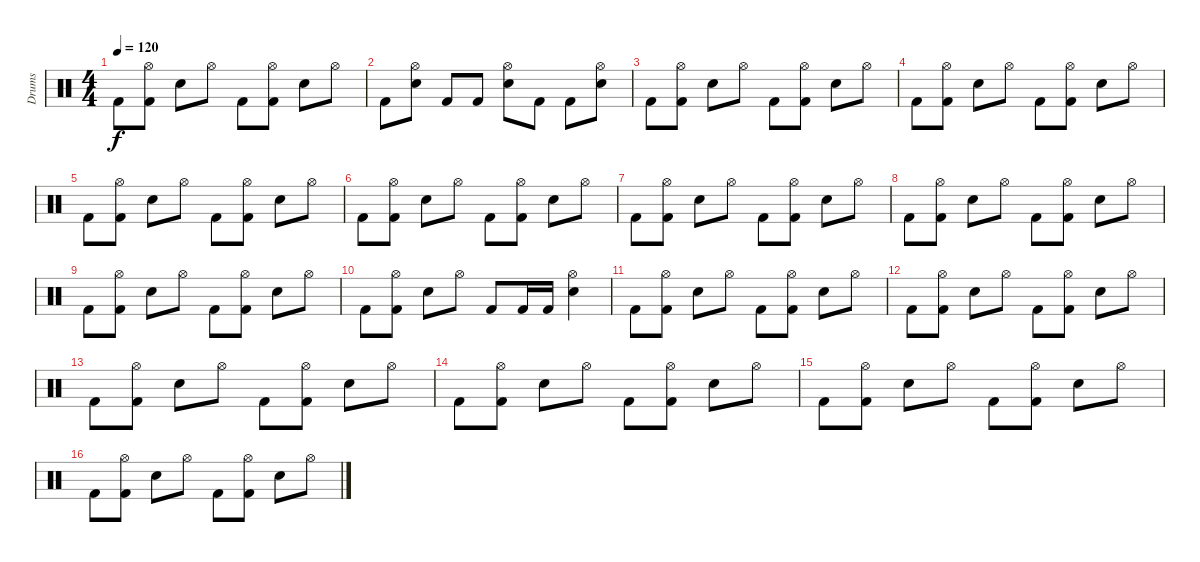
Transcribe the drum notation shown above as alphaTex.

\track ("Drums" "Drums") {instrument percussion}
\staff {score}
\articulation defaults
\ts (4 4)
\tempo 120
\clef neutral
\ks c "Kick (hit) 2".8{dy f}
("Hi-Hat (open)" "Kick (hit) 2").8 "Electric Snare (hit)".8 "Hi-Hat (open)".8 "Kick (hit) 2".8 ("Hi-Hat (open)" "Kick (hit) 2").8 "Electric Snare (hit)".8 "Hi-Hat (open)".8 |
"Kick (hit) 2".8 ("Electric Snare (hit)" "Hi-Hat (open)").8 "Kick (hit) 2".8 "Kick (hit) 2".8 ("Hi-Hat (open)" "Electric Snare (hit)").8 "Kick (hit) 2".8 "Kick (hit) 2".8 ("Electric Snare (hit)" "Hi-Hat (open)").8 |
"Kick (hit) 2".8 ("Hi-Hat (open)" "Kick (hit) 2").8 "Electric Snare (hit)".8 "Hi-Hat (open)".8 "Kick (hit) 2".8 ("Hi-Hat (open)" "Kick (hit) 2").8 "Electric Snare (hit)".8 "Hi-Hat (open)".8 |
"Kick (hit) 2".8 ("Hi-Hat (open)" "Kick (hit) 2").8 "Electric Snare (hit)".8 "Hi-Hat (open)".8 "Kick (hit) 2".8 ("Hi-Hat (open)" "Kick (hit) 2").8 "Electric Snare (hit)".8 "Hi-Hat (open)".8 |
"Kick (hit) 2".8 ("Hi-Hat (open)" "Kick (hit) 2").8 "Electric Snare (hit)".8 "Hi-Hat (open)".8 "Kick (hit) 2".8 ("Hi-Hat (open)" "Kick (hit) 2").8 "Electric Snare (hit)".8 "Hi-Hat (open)".8 |
"Kick (hit) 2".8 ("Hi-Hat (open)" "Kick (hit) 2").8 "Electric Snare (hit)".8 "Hi-Hat (open)".8 "Kick (hit) 2".8 ("Hi-Hat (open)" "Kick (hit) 2").8 "Electric Snare (hit)".8 "Hi-Hat (open)".8 |
"Kick (hit) 2".8 ("Hi-Hat (open)" "Kick (hit) 2").8 "Electric Snare (hit)".8 "Hi-Hat (open)".8 "Kick (hit) 2".8 ("Hi-Hat (open)" "Kick (hit) 2").8 "Electric Snare (hit)".8 "Hi-Hat (open)".8 |
"Kick (hit) 2".8 ("Hi-Hat (open)" "Kick (hit) 2").8 "Electric Snare (hit)".8 "Hi-Hat (open)".8 "Kick (hit) 2".8 ("Hi-Hat (open)" "Kick (hit) 2").8 "Electric Snare (hit)".8 "Hi-Hat (open)".8 |
"Kick (hit) 2".8 ("Hi-Hat (open)" "Kick (hit) 2").8 "Electric Snare (hit)".8 "Hi-Hat (open)".8 "Kick (hit) 2".8 ("Hi-Hat (open)" "Kick (hit) 2").8 "Electric Snare (hit)".8 "Hi-Hat (open)".8 |
"Kick (hit) 2".8 ("Hi-Hat (open)" "Kick (hit) 2").8 "Electric Snare (hit)".8 "Hi-Hat (open)".8 "Kick (hit) 2".8 "Kick (hit) 2".16 "Kick (hit) 2".16 ("Hi-Hat (open)" "Electric Snare (hit)").4 |
"Kick (hit) 2".8 ("Hi-Hat (open)" "Kick (hit) 2").8 "Electric Snare (hit)".8 "Hi-Hat (open)".8 "Kick (hit) 2".8 ("Hi-Hat (open)" "Kick (hit) 2").8 "Electric Snare (hit)".8 "Hi-Hat (open)".8 |
"Kick (hit) 2".8 ("Hi-Hat (open)" "Kick (hit) 2").8 "Electric Snare (hit)".8 "Hi-Hat (open)".8 "Kick (hit) 2".8 ("Hi-Hat (open)" "Kick (hit) 2").8 "Electric Snare (hit)".8 "Hi-Hat (open)".8 |
"Kick (hit) 2".8 ("Hi-Hat (open)" "Kick (hit) 2").8 "Electric Snare (hit)".8 "Hi-Hat (open)".8 "Kick (hit) 2".8 ("Hi-Hat (open)" "Kick (hit) 2").8 "Electric Snare (hit)".8 "Hi-Hat (open)".8 |
"Kick (hit) 2".8 ("Hi-Hat (open)" "Kick (hit) 2").8 "Electric Snare (hit)".8 "Hi-Hat (open)".8 "Kick (hit) 2".8 ("Hi-Hat (open)" "Kick (hit) 2").8 "Electric Snare (hit)".8 "Hi-Hat (open)".8 |
"Kick (hit) 2".8 ("Hi-Hat (open)" "Kick (hit) 2").8 "Electric Snare (hit)".8 "Hi-Hat (open)".8 "Kick (hit) 2".8 ("Hi-Hat (open)" "Kick (hit) 2").8 "Electric Snare (hit)".8 "Hi-Hat (open)".8 |
"Kick (hit) 2".8 ("Hi-Hat (open)" "Kick (hit) 2").8 "Electric Snare (hit)".8 "Hi-Hat (open)".8 "Kick (hit) 2".8 ("Hi-Hat (open)" "Kick (hit) 2").8 "Electric Snare (hit)".8 "Hi-Hat (open)".8
